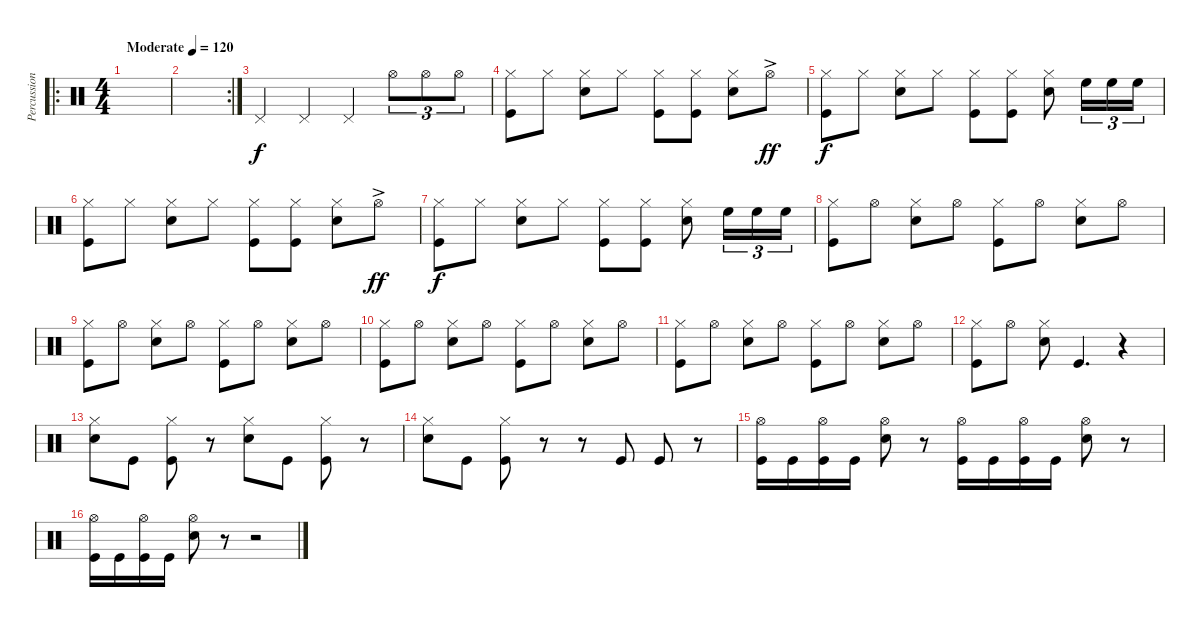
\track ("Percussion" "Percussion") {instrument percussion}
\staff {score}
\articulation defaults
\ro
\ts (4 4)
\tempo (120 "Moderate")
\clef neutral
\ks c
|
\rc 2
|
"Pedal Hi-Hat (hit)".4 "Pedal Hi-Hat (hit)".4 "Pedal Hi-Hat (hit)".4 "Hi-Hat (open)".8{tu (3 2)} "Hi-Hat (open)".8{tu (3 2)} "Hi-Hat (open)".8{tu (3 2)} |
("Hi-Hat (closed)" "Kick (hit)").8 "Hi-Hat (closed)".8 ("Hi-Hat (closed)" "Snare (hit) 2").8 "Hi-Hat (closed)".8 ("Hi-Hat (closed)" "Kick (hit)").8 ("Hi-Hat (closed)" "Kick (hit)").8 ("Hi-Hat (closed)" "Snare (hit) 2").8 "Hi-Hat (open)"{ac}.8{dy ff} |
("Hi-Hat (closed)" "Kick (hit)").8{dy f} "Hi-Hat (closed)".8 ("Hi-Hat (closed)" "Snare (hit) 2").8 "Hi-Hat (closed)".8 ("Hi-Hat (closed)" "Kick (hit)").8 ("Hi-Hat (closed)" "Kick (hit)").8 ("Hi-Hat (closed)" "Snare (hit) 2").8 "High Floor Tom (hit)".16{tu (3 2)} "High Floor Tom (hit)".16{tu (3 2)} "High Floor Tom (hit)".16{tu (3 2)} |
("Hi-Hat (closed)" "Kick (hit)").8 "Hi-Hat (closed)".8 ("Hi-Hat (closed)" "Snare (hit) 2").8 "Hi-Hat (closed)".8 ("Hi-Hat (closed)" "Kick (hit)").8 ("Hi-Hat (closed)" "Kick (hit)").8 ("Hi-Hat (closed)" "Snare (hit) 2").8 "Hi-Hat (open)"{ac}.8{dy ff} |
("Hi-Hat (closed)" "Kick (hit)").8{dy f} "Hi-Hat (closed)".8 ("Hi-Hat (closed)" "Snare (hit) 2").8 "Hi-Hat (closed)".8 ("Hi-Hat (closed)" "Kick (hit)").8 ("Hi-Hat (closed)" "Kick (hit)").8 ("Hi-Hat (closed)" "Snare (hit) 2").8 "High Floor Tom (hit)".16{tu (3 2)} "High Floor Tom (hit)".16{tu (3 2)} "High Floor Tom (hit)".16{tu (3 2)} |
("Hi-Hat (closed)" "Kick (hit)").8 "Hi-Hat (open)".8 ("Hi-Hat (closed)" "Snare (hit) 2").8 "Hi-Hat (open)".8 ("Hi-Hat (closed)" "Kick (hit)").8 "Hi-Hat (open)".8 ("Hi-Hat (closed)" "Snare (hit) 2").8 "Hi-Hat (open)".8 |
("Hi-Hat (closed)" "Kick (hit)").8 "Hi-Hat (open)".8 ("Hi-Hat (closed)" "Snare (hit) 2").8 "Hi-Hat (open)".8 ("Hi-Hat (closed)" "Kick (hit)").8 "Hi-Hat (open)".8 ("Hi-Hat (closed)" "Snare (hit) 2").8 "Hi-Hat (open)".8 |
("Hi-Hat (closed)" "Kick (hit)").8 "Hi-Hat (open)".8 ("Hi-Hat (closed)" "Snare (hit) 2").8 "Hi-Hat (open)".8 ("Hi-Hat (closed)" "Kick (hit)").8 "Hi-Hat (open)".8 ("Hi-Hat (closed)" "Snare (hit) 2").8 "Hi-Hat (open)".8 |
("Hi-Hat (closed)" "Kick (hit)").8 "Hi-Hat (open)".8 ("Hi-Hat (closed)" "Snare (hit) 2").8 "Hi-Hat (open)".8 ("Hi-Hat (closed)" "Kick (hit)").8 "Hi-Hat (open)".8 ("Hi-Hat (closed)" "Snare (hit) 2").8 "Hi-Hat (open)".8 |
("Hi-Hat (closed)" "Kick (hit)").8 "Hi-Hat (open)".8 ("Hi-Hat (closed)" "Snare (hit) 2").8 "Kick (hit)".4{d} r.4 |
("Hi-Hat (closed)" "Snare (hit) 2").8 "Kick (hit)".8 ("Hi-Hat (closed)" "Kick (hit)").8 r.8 ("Hi-Hat (closed)" "Snare (hit) 2").8 "Kick (hit)".8 ("Hi-Hat (closed)" "Kick (hit)").8 r.8 |
("Hi-Hat (closed)" "Snare (hit) 2").8 "Kick (hit)".8 ("Hi-Hat (closed)" "Kick (hit)").8 r.8 r.8 "Kick (hit)".8 "Kick (hit)".8 r.8 |
("Hi-Hat (open)" "Kick (hit)").16 "Kick (hit)".16 ("Hi-Hat (open)" "Kick (hit)").16 "Kick (hit)".16 ("Hi-Hat (open)" "Snare (hit) 2").8 r.8 ("Hi-Hat (open)" "Kick (hit)").16 "Kick (hit)".16 ("Hi-Hat (open)" "Kick (hit)").16 "Kick (hit)".16 ("Hi-Hat (open)" "Snare (hit) 2").8 r.8 |
("Hi-Hat (open)" "Kick (hit)").16 "Kick (hit)".16 ("Hi-Hat (open)" "Kick (hit)").16 "Kick (hit)".16 ("Hi-Hat (open)" "Snare (hit) 2").8 r.8 r.2
